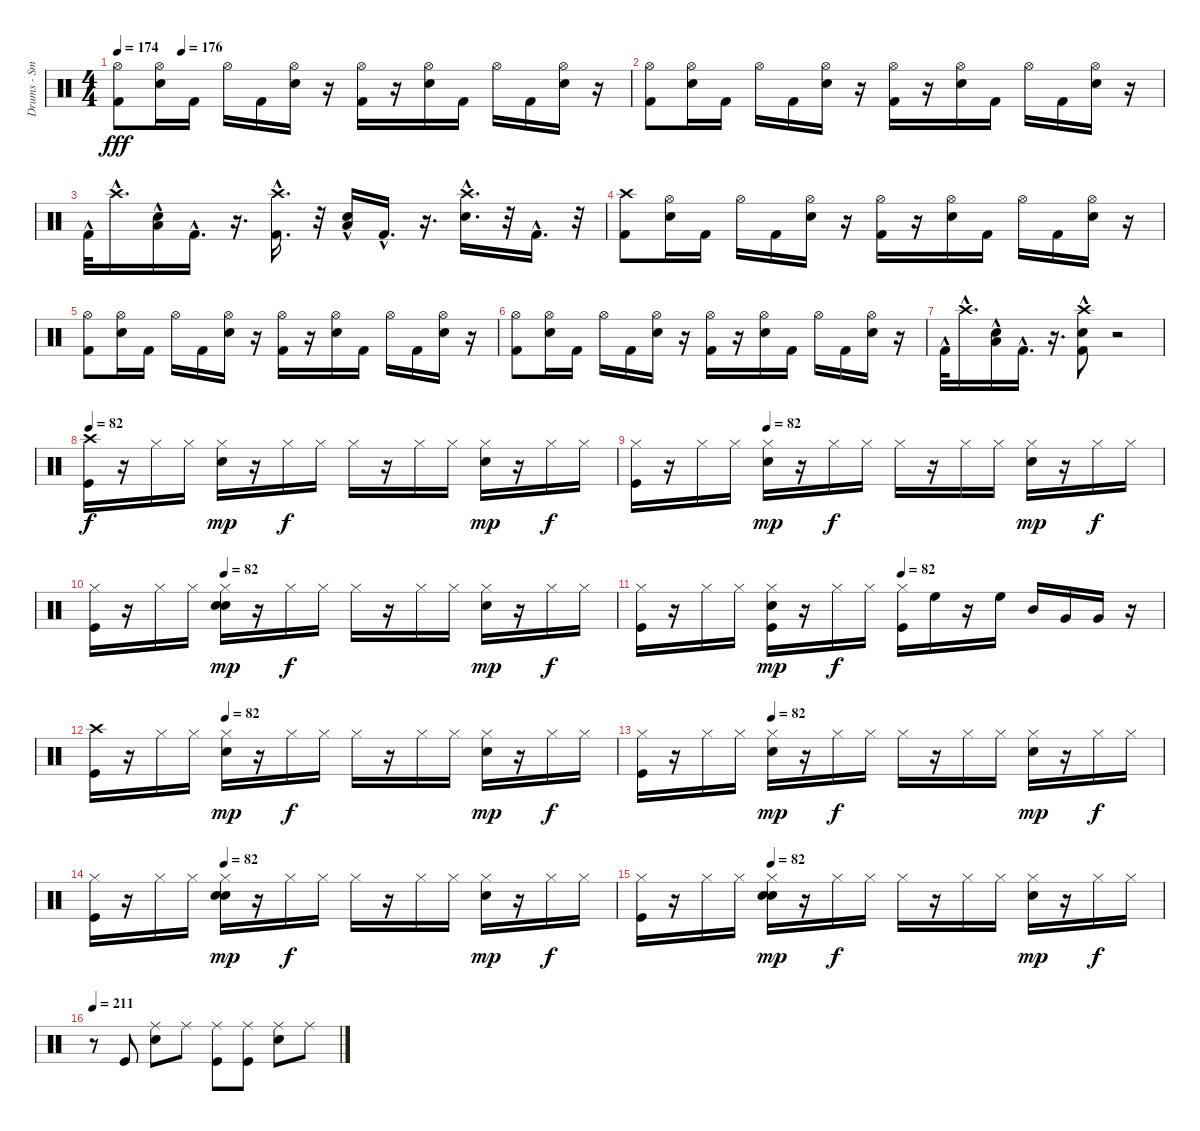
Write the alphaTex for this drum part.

\track ("Drums - Smelly" "Drums - Sm") {instrument percussion}
\staff {score}
\articulation defaults
\ts (4 4)
\tempo 174
\tempo (176 0.125)
\clef neutral
\ks c
("Kick (hit) 2" "Hi-Hat (open)").8{dy fff} ("Hi-Hat (open)" "Electric Snare (hit)").16 "Kick (hit) 2".16 "Hi-Hat (open)".16 "Kick (hit) 2".16 ("Electric Snare (hit)" "Hi-Hat (open)").16 r.16 ("Kick (hit) 2" "Hi-Hat (open)").16 r.16 ("Electric Snare (hit)" "Hi-Hat (open)").16 "Kick (hit) 2".16 "Hi-Hat (open)".16 "Kick (hit) 2".16 ("Hi-Hat (open)" "Electric Snare (hit)").16 r.16 |
("Kick (hit) 2" "Hi-Hat (open)").8 ("Electric Snare (hit)" "Hi-Hat (open)").16 "Kick (hit) 2".16 "Hi-Hat (open)".16 "Kick (hit) 2".16 ("Hi-Hat (open)" "Electric Snare (hit)").16 r.16 ("Kick (hit) 2" "Hi-Hat (open)").16 r.16 ("Hi-Hat (open)" "Electric Snare (hit)").16 "Kick (hit) 2".16 "Hi-Hat (open)".16 "Kick (hit) 2".16 ("Electric Snare (hit)" "Hi-Hat (open)").16 r.16 |
"Kick (hit) 2"{hac}.32 "Crash high (hit)"{hac}.16{d} ("Electric Snare (hit)"{hac} "Low Tom (hit)").16 "Kick (hit) 2"{hac}.16{d} r.16{d} ("Crash high (hit)"{hac} "Kick (hit) 2"{hac}).16{d} r.32 ("Low Tom (hit)" "Electric Snare (hit)"{hac}).16 "Kick (hit) 2"{hac}.16{d} r.16{d} ("Electric Snare (hit)"{hac} "Crash high (hit)"{hac}).16{d} r.32 "Kick (hit) 2"{hac}.16{d} r.32 |
("Kick (hit) 2" "Crash high (hit)").8 ("Electric Snare (hit)" "Hi-Hat (open)").16 "Kick (hit) 2".16 "Hi-Hat (open)".16 "Kick (hit) 2".16 ("Hi-Hat (open)" "Electric Snare (hit)").16 r.16 ("Kick (hit) 2" "Hi-Hat (open)").16 r.16 ("Hi-Hat (open)" "Electric Snare (hit)").16 "Kick (hit) 2".16 "Hi-Hat (open)".16 "Kick (hit) 2".16 ("Hi-Hat (open)" "Electric Snare (hit)").16 r.16 |
("Hi-Hat (open)" "Kick (hit) 2").8 ("Hi-Hat (open)" "Electric Snare (hit)").16 "Kick (hit) 2".16 "Hi-Hat (open)".16 "Kick (hit) 2".16 ("Hi-Hat (open)" "Electric Snare (hit)").16 r.16 ("Hi-Hat (open)" "Kick (hit) 2").16 r.16 ("Electric Snare (hit)" "Hi-Hat (open)").16 "Kick (hit) 2".16 "Hi-Hat (open)".16 "Kick (hit) 2".16 ("Electric Snare (hit)" "Hi-Hat (open)").16 r.16 |
("Hi-Hat (open)" "Kick (hit) 2").8 ("Hi-Hat (open)" "Electric Snare (hit)").16 "Kick (hit) 2".16 "Hi-Hat (open)".16 "Kick (hit) 2".16 ("Electric Snare (hit)" "Hi-Hat (open)").16 r.16 ("Kick (hit) 2" "Hi-Hat (open)").16 r.16 ("Electric Snare (hit)" "Hi-Hat (open)").16 "Kick (hit) 2".16 "Hi-Hat (open)".16 "Kick (hit) 2".16 ("Hi-Hat (open)" "Electric Snare (hit)").16 r.16 |
"Kick (hit) 2"{hac}.32 "Crash high (hit)"{hac}.16{d} ("Low Tom (hit)" "Electric Snare (hit)"{hac}).16 "Kick (hit) 2"{hac}.16{d} r.16{d} ("Electric Snare (hit)" "Kick (hit) 2"{hac} "Crash high (hit)"{hac}).8 r.2 |
\tempo 82
("Kick (hit)" "Crash high (hit)").16{dy f} r.16 "Hi-Hat (closed)".16 "Hi-Hat (closed)".16 ("Hi-Hat (closed)" "Snare (hit) 2").16{dy mp} r.16 "Hi-Hat (closed)".16{dy f} "Hi-Hat (closed)".16 "Hi-Hat (closed)".16 r.16 "Hi-Hat (closed)".16 "Hi-Hat (closed)".16 ("Hi-Hat (closed)" "Snare (hit) 2").16{dy mp} r.16 "Hi-Hat (closed)".16{dy f} "Hi-Hat (closed)".16 |
\tempo (82 0.25)
("Hi-Hat (closed)" "Kick (hit)").16 r.16 "Hi-Hat (closed)".16 "Hi-Hat (closed)".16 ("Hi-Hat (closed)" "Snare (hit) 2").16{dy mp} r.16 "Hi-Hat (closed)".16{dy f} "Hi-Hat (closed)".16 "Hi-Hat (closed)".16 r.16 "Hi-Hat (closed)".16 "Hi-Hat (closed)".16 ("Hi-Hat (closed)" "Snare (hit) 2").16{dy mp} r.16 "Hi-Hat (closed)".16{dy f} "Hi-Hat (closed)".16 |
\tempo (82 0.25)
("Kick (hit)" "Hi-Hat (closed)").16 r.16 "Hi-Hat (closed)".16 "Hi-Hat (closed)".16 ("Snare (hit) 2" "Hi-Hat (closed)" "Snare (hit) 2").16{dy mp} r.16 "Hi-Hat (closed)".16{dy f} "Hi-Hat (closed)".16 "Hi-Hat (closed)".16 r.16 "Hi-Hat (closed)".16 "Hi-Hat (closed)".16 ("Snare (hit) 2" "Hi-Hat (closed)").16{dy mp} r.16 "Hi-Hat (closed)".16{dy f} "Hi-Hat (closed)".16 |
\tempo (82 0.5)
("Kick (hit)" "Hi-Hat (closed)").16 r.16 "Hi-Hat (closed)".16 "Hi-Hat (closed)".16 ("Kick (hit)" "Hi-Hat (closed)" "Snare (hit) 2").16{dy mp} r.16 "Hi-Hat (closed)".16{dy f} "Hi-Hat (closed)".16 ("Kick (hit)" "Hi-Hat (closed)").16 "High Floor Tom (hit)".16 r.16 "High Floor Tom (hit)".16 "Mid Tom (hit)".16 "Very Low Tom (hit)".16 "Very Low Tom (hit)".16 r.16 |
\tempo (82 0.25)
("Kick (hit)" "Crash high (hit)").16 r.16 "Hi-Hat (closed)".16 "Hi-Hat (closed)".16 ("Hi-Hat (closed)" "Snare (hit) 2").16{dy mp} r.16 "Hi-Hat (closed)".16{dy f} "Hi-Hat (closed)".16 "Hi-Hat (closed)".16 r.16 "Hi-Hat (closed)".16 "Hi-Hat (closed)".16 ("Hi-Hat (closed)" "Snare (hit) 2").16{dy mp} r.16 "Hi-Hat (closed)".16{dy f} "Hi-Hat (closed)".16 |
\tempo (82 0.25)
("Hi-Hat (closed)" "Kick (hit)").16 r.16 "Hi-Hat (closed)".16 "Hi-Hat (closed)".16 ("Hi-Hat (closed)" "Snare (hit) 2").16{dy mp} r.16 "Hi-Hat (closed)".16{dy f} "Hi-Hat (closed)".16 "Hi-Hat (closed)".16 r.16 "Hi-Hat (closed)".16 "Hi-Hat (closed)".16 ("Snare (hit) 2" "Hi-Hat (closed)").16{dy mp} r.16 "Hi-Hat (closed)".16{dy f} "Hi-Hat (closed)".16 |
\tempo (82 0.25)
("Kick (hit)" "Hi-Hat (closed)").16 r.16 "Hi-Hat (closed)".16 "Hi-Hat (closed)".16 ("Snare (hit) 2" "Hi-Hat (closed)" "Snare (hit) 2").16{dy mp} r.16 "Hi-Hat (closed)".16{dy f} "Hi-Hat (closed)".16 "Hi-Hat (closed)".16 r.16 "Hi-Hat (closed)".16 "Hi-Hat (closed)".16 ("Snare (hit) 2" "Hi-Hat (closed)").16{dy mp} r.16 "Hi-Hat (closed)".16{dy f} "Hi-Hat (closed)".16 |
\tempo (82 0.25)
("Kick (hit)" "Hi-Hat (closed)").16 r.16 "Hi-Hat (closed)".16 "Hi-Hat (closed)".16 ("Hi-Hat (closed)" "Snare (hit) 2" "Snare (hit) 2").16{dy mp} r.16 "Hi-Hat (closed)".16{dy f} "Hi-Hat (closed)".16 "Hi-Hat (closed)".16 r.16 "Hi-Hat (closed)".16 "Hi-Hat (closed)".16 ("Snare (hit) 2" "Hi-Hat (closed)").16{dy mp} r.16 "Hi-Hat (closed)".16{dy f} "Hi-Hat (closed)".16 |
\tempo 211
r.8 "Kick (hit)".8 ("Electric Snare (hit)" "Ride (middle)").8 "Ride (middle)".8 ("Kick (hit)" "Ride (middle)").8 ("Kick (hit)" "Ride (middle)").8 ("Ride (middle)" "Electric Snare (hit)").8 "Ride (middle)".8
